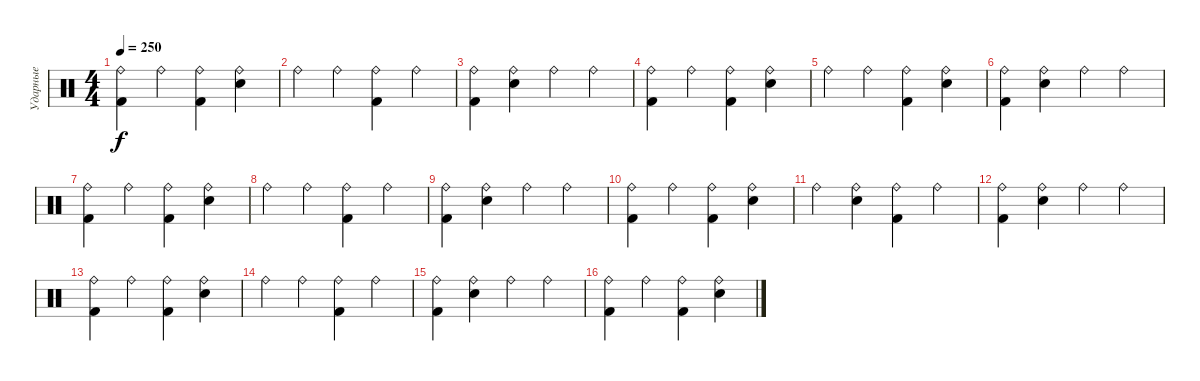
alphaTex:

\track ("Ударные" "Ударные") {instrument percussion}
\staff {score}
\articulation defaults
\ts (4 4)
\tempo 250
\clef neutral
\ks c
("Ride (bell)" "Kick (hit) 2").4{dy f} "Ride (bell)".4 ("Ride (bell)" "Kick (hit) 2").4 ("Snare (hit) 2" "Ride (bell)").4 |
"Ride (bell)".4 "Ride (bell)".4 ("Ride (bell)" "Kick (hit) 2").4 "Ride (bell)".4 |
("Ride (bell)" "Kick (hit) 2").4 ("Snare (hit) 2" "Ride (bell)").4 "Ride (bell)".4 "Ride (bell)".4 |
("Ride (bell)" "Kick (hit) 2").4 "Ride (bell)".4 ("Ride (bell)" "Kick (hit) 2").4 ("Snare (hit) 2" "Ride (bell)").4 |
"Ride (bell)".4 "Ride (bell)".4 ("Ride (bell)" "Kick (hit) 2").4 ("Snare (hit) 2" "Ride (bell)").4 |
("Ride (bell)" "Kick (hit) 2").4 ("Snare (hit) 2" "Ride (bell)").4 "Ride (bell)".4 "Ride (bell)".4 |
("Ride (bell)" "Kick (hit) 2").4 "Ride (bell)".4 ("Ride (bell)" "Kick (hit) 2").4 ("Snare (hit) 2" "Ride (bell)").4 |
"Ride (bell)".4 "Ride (bell)".4 ("Ride (bell)" "Kick (hit) 2").4 "Ride (bell)".4 |
("Ride (bell)" "Kick (hit) 2").4 ("Snare (hit) 2" "Ride (bell)").4 "Ride (bell)".4 "Ride (bell)".4 |
("Ride (bell)" "Kick (hit) 2").4 "Ride (bell)".4 ("Ride (bell)" "Kick (hit) 2").4 ("Snare (hit) 2" "Ride (bell)").4 |
"Ride (bell)".4 ("Snare (hit) 2" "Ride (bell)").4 ("Ride (bell)" "Kick (hit) 2").4 "Ride (bell)".4 |
("Ride (bell)" "Kick (hit) 2").4 ("Snare (hit) 2" "Ride (bell)").4 "Ride (bell)".4 "Ride (bell)".4 |
("Ride (bell)" "Kick (hit) 2").4 "Ride (bell)".4 ("Ride (bell)" "Kick (hit) 2").4 ("Snare (hit) 2" "Ride (bell)").4 |
"Ride (bell)".4 "Ride (bell)".4 ("Ride (bell)" "Kick (hit) 2").4 "Ride (bell)".4 |
("Ride (bell)" "Kick (hit) 2").4 ("Snare (hit) 2" "Ride (bell)").4 "Ride (bell)".4 "Ride (bell)".4 |
("Ride (bell)" "Kick (hit) 2").4 "Ride (bell)".4 ("Ride (bell)" "Kick (hit) 2").4 ("Snare (hit) 2" "Ride (bell)").4
